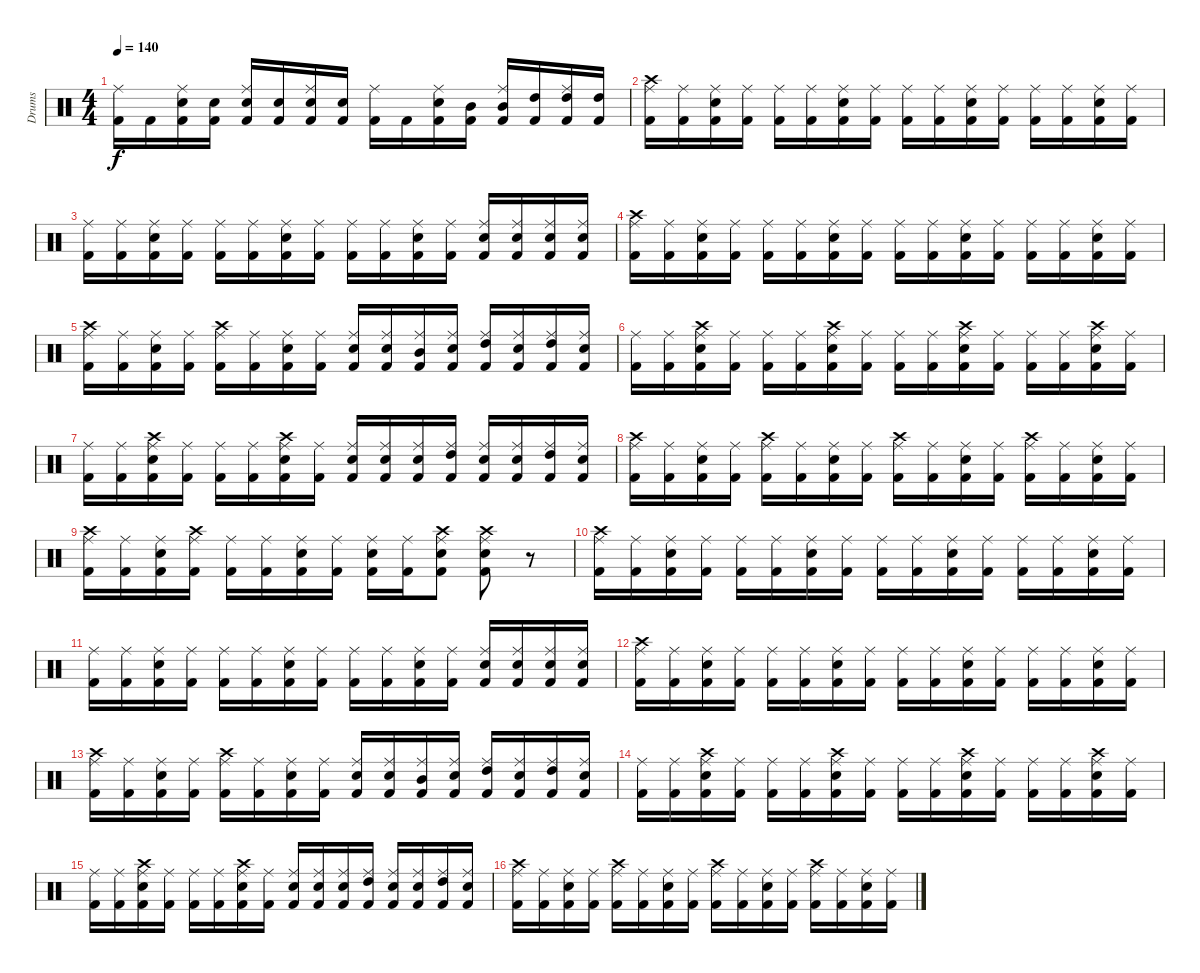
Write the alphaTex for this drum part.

\track ("Drums" "Drums") {instrument percussion}
\staff {score}
\articulation defaults
\ts (4 4)
\tempo 140
\clef neutral
\ks c
("Kick (hit) 2" "Ride (middle)").16{dy f} "Kick (hit) 2".16 ("Kick (hit) 2" "Snare (hit) 2" "Ride (middle)").16 ("Kick (hit) 2" "Snare (hit) 2").16 ("Kick (hit) 2" "Snare (hit) 2" "Ride (middle)").16 ("Kick (hit) 2" "Snare (hit) 2").16 ("Kick (hit) 2" "Snare (hit) 2" "Ride (middle)").16 ("Kick (hit) 2" "Snare (hit) 2").16 ("Kick (hit) 2" "Ride (middle)").16 "Kick (hit) 2".16 ("Kick (hit) 2" "Snare (hit) 2" "Ride (middle)").16 ("Kick (hit) 2" "Mid Tom (hit)").16 ("Kick (hit) 2" "Mid Tom (hit)" "Ride (middle)").16 ("Kick (hit) 2" "High Tom (hit)").16 ("Kick (hit) 2" "High Tom (hit)" "Ride (middle)").16 ("Kick (hit) 2" "High Tom (hit)").16 |
("Kick (hit) 2" "Crash high (hit)" "Ride (middle)").16 ("Kick (hit) 2" "Ride (middle)").16 ("Kick (hit) 2" "Snare (hit) 2" "Ride (middle)").16 ("Kick (hit) 2" "Ride (middle)").16 ("Kick (hit) 2" "Ride (middle)").16 ("Kick (hit) 2" "Ride (middle)").16 ("Kick (hit) 2" "Snare (hit) 2" "Ride (middle)").16 ("Kick (hit) 2" "Ride (middle)").16 ("Kick (hit) 2" "Ride (middle)").16 ("Kick (hit) 2" "Ride (middle)").16 ("Kick (hit) 2" "Snare (hit) 2" "Ride (middle)").16 ("Kick (hit) 2" "Ride (middle)").16 ("Kick (hit) 2" "Ride (middle)").16 ("Kick (hit) 2" "Ride (middle)").16 ("Kick (hit) 2" "Snare (hit) 2" "Ride (middle)").16 ("Kick (hit) 2" "Ride (middle)").16 |
("Kick (hit) 2" "Ride (middle)").16 ("Kick (hit) 2" "Ride (middle)").16 ("Kick (hit) 2" "Snare (hit) 2" "Ride (middle)").16 ("Kick (hit) 2" "Ride (middle)").16 ("Kick (hit) 2" "Ride (middle)").16 ("Kick (hit) 2" "Ride (middle)").16 ("Kick (hit) 2" "Snare (hit) 2" "Ride (middle)").16 ("Kick (hit) 2" "Ride (middle)").16 ("Kick (hit) 2" "Ride (middle)").16 ("Kick (hit) 2" "Ride (middle)").16 ("Kick (hit) 2" "Snare (hit) 2" "Ride (middle)").16 ("Kick (hit) 2" "Ride (middle)").16 ("Kick (hit) 2" "Snare (hit) 2" "Ride (middle)").16 ("Kick (hit) 2" "Snare (hit) 2" "Ride (middle)").16 ("Kick (hit) 2" "Snare (hit) 2" "Ride (middle)").16 ("Kick (hit) 2" "Snare (hit) 2" "Ride (middle)").16 |
("Kick (hit) 2" "Crash high (hit)" "Ride (middle)").16 ("Kick (hit) 2" "Ride (middle)").16 ("Kick (hit) 2" "Snare (hit) 2" "Ride (middle)").16 ("Kick (hit) 2" "Ride (middle)").16 ("Kick (hit) 2" "Ride (middle)").16 ("Kick (hit) 2" "Ride (middle)").16 ("Kick (hit) 2" "Snare (hit) 2" "Ride (middle)").16 ("Kick (hit) 2" "Ride (middle)").16 ("Kick (hit) 2" "Ride (middle)").16 ("Kick (hit) 2" "Ride (middle)").16 ("Kick (hit) 2" "Snare (hit) 2" "Ride (middle)").16 ("Kick (hit) 2" "Ride (middle)").16 ("Kick (hit) 2" "Ride (middle)").16 ("Kick (hit) 2" "Ride (middle)").16 ("Kick (hit) 2" "Snare (hit) 2" "Ride (middle)").16 ("Kick (hit) 2" "Ride (middle)").16 |
("Kick (hit) 2" "Crash high (hit)" "Ride (middle)").16 ("Kick (hit) 2" "Ride (middle)").16 ("Kick (hit) 2" "Snare (hit) 2" "Ride (middle)").16 ("Kick (hit) 2" "Ride (middle)").16 ("Kick (hit) 2" "Crash high (hit)" "Ride (middle)").16 ("Kick (hit) 2" "Ride (middle)").16 ("Kick (hit) 2" "Snare (hit) 2" "Ride (middle)").16 ("Kick (hit) 2" "Ride (middle)").16 ("Kick (hit) 2" "Snare (hit) 2" "Ride (middle)").16 ("Kick (hit) 2" "Snare (hit) 2" "Ride (middle)").16 ("Kick (hit) 2" "Mid Tom (hit)" "Ride (middle)").16 ("Kick (hit) 2" "Snare (hit) 2" "Ride (middle)").16 ("Kick (hit) 2" "High Tom (hit)" "Ride (middle)").16 ("Kick (hit) 2" "Snare (hit) 2" "Ride (middle)").16 ("Kick (hit) 2" "High Tom (hit)" "Ride (middle)").16 ("Kick (hit) 2" "Snare (hit) 2" "Ride (middle)").16 |
("Kick (hit) 2" "Ride (middle)").16 ("Kick (hit) 2" "Ride (middle)").16 ("Kick (hit) 2" "Snare (hit) 2" "Crash high (hit)" "Ride (middle)").16 ("Kick (hit) 2" "Ride (middle)").16 ("Kick (hit) 2" "Ride (middle)").16 ("Kick (hit) 2" "Ride (middle)").16 ("Kick (hit) 2" "Snare (hit) 2" "Crash high (hit)" "Ride (middle)").16 ("Kick (hit) 2" "Ride (middle)").16 ("Kick (hit) 2" "Ride (middle)").16 ("Kick (hit) 2" "Ride (middle)").16 ("Kick (hit) 2" "Snare (hit) 2" "Crash high (hit)" "Ride (middle)").16 ("Kick (hit) 2" "Ride (middle)").16 ("Kick (hit) 2" "Ride (middle)").16 ("Kick (hit) 2" "Ride (middle)").16 ("Kick (hit) 2" "Snare (hit) 2" "Crash high (hit)" "Ride (middle)").16 ("Kick (hit) 2" "Ride (middle)").16 |
("Kick (hit) 2" "Ride (middle)").16 ("Kick (hit) 2" "Ride (middle)").16 ("Kick (hit) 2" "Snare (hit) 2" "Crash high (hit)" "Ride (middle)").16 ("Kick (hit) 2" "Ride (middle)").16 ("Kick (hit) 2" "Ride (middle)").16 ("Kick (hit) 2" "Ride (middle)").16 ("Kick (hit) 2" "Snare (hit) 2" "Crash high (hit)" "Ride (middle)").16 ("Kick (hit) 2" "Ride (middle)").16 ("Kick (hit) 2" "Snare (hit) 2" "Ride (middle)").16 ("Kick (hit) 2" "Snare (hit) 2" "Ride (middle)").16 ("Kick (hit) 2" "Snare (hit) 2" "Ride (middle)").16 ("Kick (hit) 2" "High Tom (hit)" "Ride (middle)").16 ("Kick (hit) 2" "Snare (hit) 2" "Ride (middle)").16 ("Kick (hit) 2" "Snare (hit) 2" "Ride (middle)").16 ("Kick (hit) 2" "High Tom (hit)" "Ride (middle)").16 ("Kick (hit) 2" "Snare (hit) 2" "Ride (middle)").16 |
("Kick (hit) 2" "Crash high (hit)" "Ride (middle)").16 ("Kick (hit) 2" "Ride (middle)").16 ("Kick (hit) 2" "Snare (hit) 2" "Ride (middle)").16 ("Kick (hit) 2" "Ride (middle)").16 ("Kick (hit) 2" "Crash high (hit)" "Ride (middle)").16 ("Kick (hit) 2" "Ride (middle)").16 ("Kick (hit) 2" "Snare (hit) 2" "Ride (middle)").16 ("Kick (hit) 2" "Ride (middle)").16 ("Kick (hit) 2" "Crash high (hit)" "Ride (middle)").16 ("Kick (hit) 2" "Ride (middle)").16 ("Kick (hit) 2" "Snare (hit) 2" "Ride (middle)").16 ("Kick (hit) 2" "Ride (middle)").16 ("Kick (hit) 2" "Crash high (hit)" "Ride (middle)").16 ("Kick (hit) 2" "Ride (middle)").16 ("Kick (hit) 2" "Snare (hit) 2" "Ride (middle)").16 ("Kick (hit) 2" "Ride (middle)").16 |
("Kick (hit) 2" "Crash high (hit)" "Ride (middle)").16 ("Kick (hit) 2" "Ride (middle)").16 ("Kick (hit) 2" "Snare (hit) 2" "Ride (middle)").16 ("Kick (hit) 2" "Crash high (hit)" "Ride (middle)").16 ("Kick (hit) 2" "Ride (middle)").16 ("Kick (hit) 2" "Ride (middle)").16 ("Kick (hit) 2" "Snare (hit) 2" "Ride (middle)").16 ("Kick (hit) 2" "Ride (middle)").16 ("Kick (hit) 2" "Snare (hit) 2" "Ride (middle)").16 ("Kick (hit) 2" "Ride (middle)").16 ("Kick (hit) 2" "Snare (hit) 2" "Crash high (hit)" "Ride (middle)").8 ("Kick (hit) 2" "Snare (hit) 2" "Crash high (hit)" "Ride (middle)").8 r.8 |
("Kick (hit) 2" "Crash high (hit)" "Ride (middle)").16 ("Kick (hit) 2" "Ride (middle)").16 ("Kick (hit) 2" "Snare (hit) 2" "Ride (middle)").16 ("Kick (hit) 2" "Ride (middle)").16 ("Kick (hit) 2" "Ride (middle)").16 ("Kick (hit) 2" "Ride (middle)").16 ("Kick (hit) 2" "Snare (hit) 2" "Ride (middle)").16 ("Kick (hit) 2" "Ride (middle)").16 ("Kick (hit) 2" "Ride (middle)").16 ("Kick (hit) 2" "Ride (middle)").16 ("Kick (hit) 2" "Snare (hit) 2" "Ride (middle)").16 ("Kick (hit) 2" "Ride (middle)").16 ("Kick (hit) 2" "Ride (middle)").16 ("Kick (hit) 2" "Ride (middle)").16 ("Kick (hit) 2" "Snare (hit) 2" "Ride (middle)").16 ("Kick (hit) 2" "Ride (middle)").16 |
("Kick (hit) 2" "Ride (middle)").16 ("Kick (hit) 2" "Ride (middle)").16 ("Kick (hit) 2" "Snare (hit) 2" "Ride (middle)").16 ("Kick (hit) 2" "Ride (middle)").16 ("Kick (hit) 2" "Ride (middle)").16 ("Kick (hit) 2" "Ride (middle)").16 ("Kick (hit) 2" "Snare (hit) 2" "Ride (middle)").16 ("Kick (hit) 2" "Ride (middle)").16 ("Kick (hit) 2" "Ride (middle)").16 ("Kick (hit) 2" "Ride (middle)").16 ("Kick (hit) 2" "Snare (hit) 2" "Ride (middle)").16 ("Kick (hit) 2" "Ride (middle)").16 ("Kick (hit) 2" "Snare (hit) 2" "Ride (middle)").16 ("Kick (hit) 2" "Snare (hit) 2" "Ride (middle)").16 ("Kick (hit) 2" "Snare (hit) 2" "Ride (middle)").16 ("Kick (hit) 2" "Snare (hit) 2" "Ride (middle)").16 |
("Kick (hit) 2" "Crash high (hit)" "Ride (middle)").16 ("Kick (hit) 2" "Ride (middle)").16 ("Kick (hit) 2" "Snare (hit) 2" "Ride (middle)").16 ("Kick (hit) 2" "Ride (middle)").16 ("Kick (hit) 2" "Ride (middle)").16 ("Kick (hit) 2" "Ride (middle)").16 ("Kick (hit) 2" "Snare (hit) 2" "Ride (middle)").16 ("Kick (hit) 2" "Ride (middle)").16 ("Kick (hit) 2" "Ride (middle)").16 ("Kick (hit) 2" "Ride (middle)").16 ("Kick (hit) 2" "Snare (hit) 2" "Ride (middle)").16 ("Kick (hit) 2" "Ride (middle)").16 ("Kick (hit) 2" "Ride (middle)").16 ("Kick (hit) 2" "Ride (middle)").16 ("Kick (hit) 2" "Snare (hit) 2" "Ride (middle)").16 ("Kick (hit) 2" "Ride (middle)").16 |
("Kick (hit) 2" "Crash high (hit)" "Ride (middle)").16 ("Kick (hit) 2" "Ride (middle)").16 ("Kick (hit) 2" "Snare (hit) 2" "Ride (middle)").16 ("Kick (hit) 2" "Ride (middle)").16 ("Kick (hit) 2" "Crash high (hit)" "Ride (middle)").16 ("Kick (hit) 2" "Ride (middle)").16 ("Kick (hit) 2" "Snare (hit) 2" "Ride (middle)").16 ("Kick (hit) 2" "Ride (middle)").16 ("Kick (hit) 2" "Snare (hit) 2" "Ride (middle)").16 ("Kick (hit) 2" "Snare (hit) 2" "Ride (middle)").16 ("Kick (hit) 2" "Mid Tom (hit)" "Ride (middle)").16 ("Kick (hit) 2" "Snare (hit) 2" "Ride (middle)").16 ("Kick (hit) 2" "High Tom (hit)" "Ride (middle)").16 ("Kick (hit) 2" "Snare (hit) 2" "Ride (middle)").16 ("Kick (hit) 2" "High Tom (hit)" "Ride (middle)").16 ("Kick (hit) 2" "Snare (hit) 2" "Ride (middle)").16 |
("Kick (hit) 2" "Ride (middle)").16 ("Kick (hit) 2" "Ride (middle)").16 ("Kick (hit) 2" "Snare (hit) 2" "Crash high (hit)" "Ride (middle)").16 ("Kick (hit) 2" "Ride (middle)").16 ("Kick (hit) 2" "Ride (middle)").16 ("Kick (hit) 2" "Ride (middle)").16 ("Kick (hit) 2" "Snare (hit) 2" "Crash high (hit)" "Ride (middle)").16 ("Kick (hit) 2" "Ride (middle)").16 ("Kick (hit) 2" "Ride (middle)").16 ("Kick (hit) 2" "Ride (middle)").16 ("Kick (hit) 2" "Snare (hit) 2" "Crash high (hit)" "Ride (middle)").16 ("Kick (hit) 2" "Ride (middle)").16 ("Kick (hit) 2" "Ride (middle)").16 ("Kick (hit) 2" "Ride (middle)").16 ("Kick (hit) 2" "Snare (hit) 2" "Crash high (hit)" "Ride (middle)").16 ("Kick (hit) 2" "Ride (middle)").16 |
("Kick (hit) 2" "Ride (middle)").16 ("Kick (hit) 2" "Ride (middle)").16 ("Kick (hit) 2" "Snare (hit) 2" "Crash high (hit)" "Ride (middle)").16 ("Kick (hit) 2" "Ride (middle)").16 ("Kick (hit) 2" "Ride (middle)").16 ("Kick (hit) 2" "Ride (middle)").16 ("Kick (hit) 2" "Snare (hit) 2" "Crash high (hit)" "Ride (middle)").16 ("Kick (hit) 2" "Ride (middle)").16 ("Kick (hit) 2" "Snare (hit) 2" "Ride (middle)").16 ("Kick (hit) 2" "Snare (hit) 2" "Ride (middle)").16 ("Kick (hit) 2" "Snare (hit) 2" "Ride (middle)").16 ("Kick (hit) 2" "High Tom (hit)" "Ride (middle)").16 ("Kick (hit) 2" "Snare (hit) 2" "Ride (middle)").16 ("Kick (hit) 2" "Snare (hit) 2" "Ride (middle)").16 ("Kick (hit) 2" "High Tom (hit)" "Ride (middle)").16 ("Kick (hit) 2" "Snare (hit) 2" "Ride (middle)").16 |
("Kick (hit) 2" "Crash high (hit)" "Ride (middle)").16 ("Kick (hit) 2" "Ride (middle)").16 ("Kick (hit) 2" "Snare (hit) 2" "Ride (middle)").16 ("Kick (hit) 2" "Ride (middle)").16 ("Kick (hit) 2" "Crash high (hit)" "Ride (middle)").16 ("Kick (hit) 2" "Ride (middle)").16 ("Kick (hit) 2" "Snare (hit) 2" "Ride (middle)").16 ("Kick (hit) 2" "Ride (middle)").16 ("Kick (hit) 2" "Crash high (hit)" "Ride (middle)").16 ("Kick (hit) 2" "Ride (middle)").16 ("Kick (hit) 2" "Snare (hit) 2" "Ride (middle)").16 ("Kick (hit) 2" "Ride (middle)").16 ("Kick (hit) 2" "Crash high (hit)" "Ride (middle)").16 ("Kick (hit) 2" "Ride (middle)").16 ("Kick (hit) 2" "Snare (hit) 2" "Ride (middle)").16 ("Kick (hit) 2" "Ride (middle)").16
